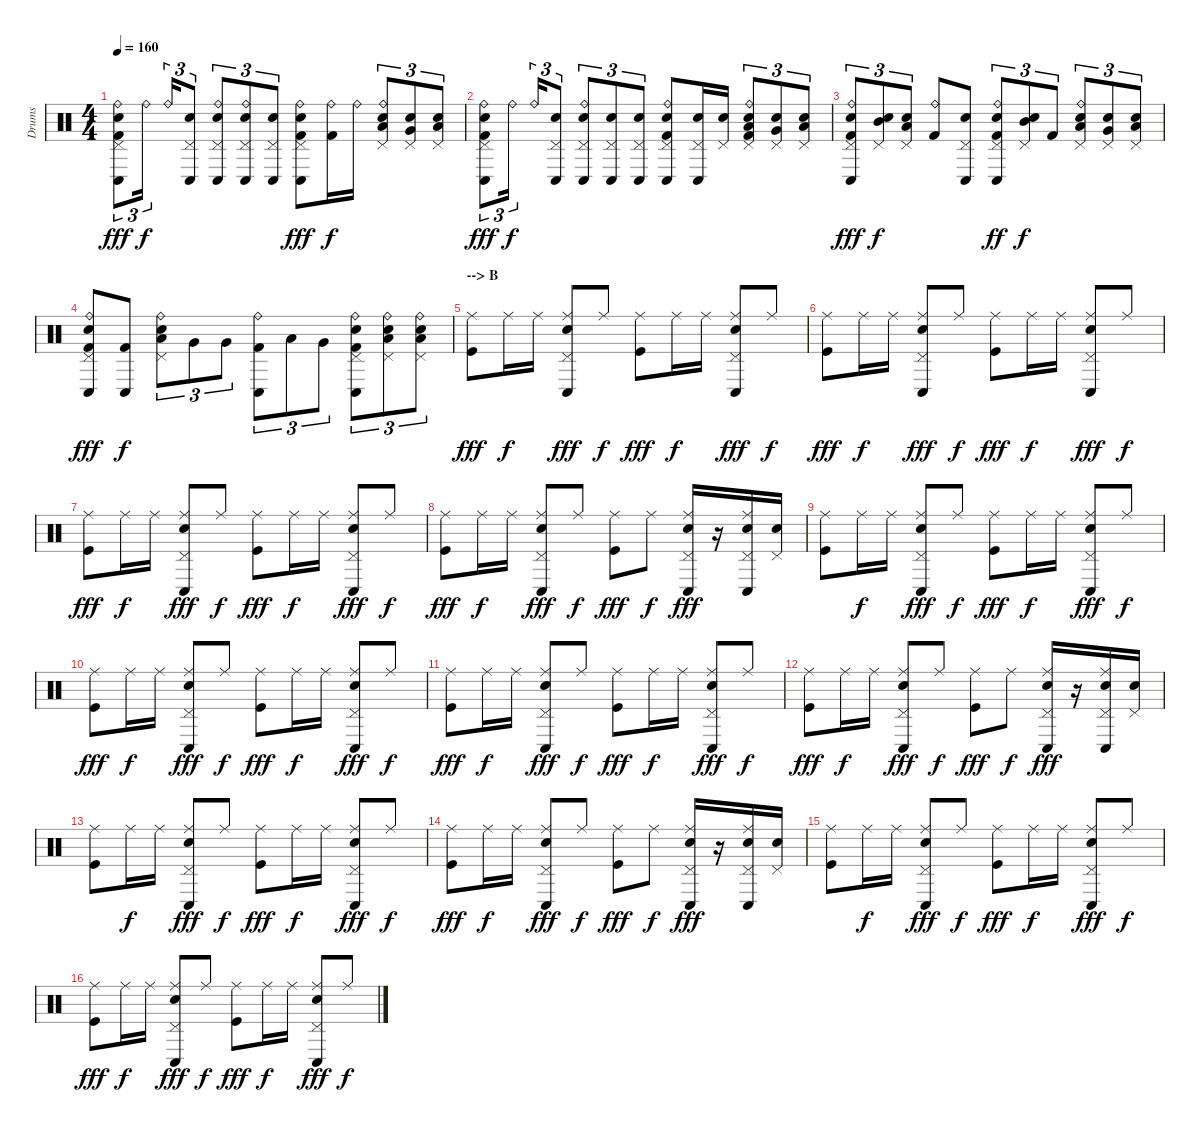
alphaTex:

\track ("Drums" "Drums") {instrument percussion}
\staff {score}
\articulation defaults
\ts (4 4)
\tempo 160
\clef neutral
\ks c
("Ride (bell)" "Pedal Hi-Hat (hit)" "Conga low (hit)" "Electric Snare (hit)" "Kick (hit) 2").8{tu (3 2) dy fff} "Ride (bell)".16{tu (3 2) dy f} "Ride (bell)".16{tu (3 2)} ("Pedal Hi-Hat (hit)" "Conga low (hit)" "Electric Snare (hit)").8{tu (3 2)} ("Ride (bell)" "Pedal Hi-Hat (hit)" "Conga low (hit)" "Electric Snare (hit)").8{tu (3 2)} ("Ride (bell)" "Pedal Hi-Hat (hit)" "Conga low (hit)" "Electric Snare (hit)").8{tu (3 2)} ("Pedal Hi-Hat (hit)" "Conga low (hit)" "Electric Snare (hit)").8{tu (3 2)} ("Ride (bell)" "Pedal Hi-Hat (hit)" "Conga low (hit)" "Electric Snare (hit)" "Kick (hit) 2").8{dy fff} ("Ride (bell)" "Kick (hit) 2").16{dy f} "Ride (bell)".16 ("Ride (bell)" "Pedal Hi-Hat (hit)" "Low Tom (hit)" "Electric Snare (hit)").8{tu (3 2)} ("Pedal Hi-Hat (hit)" "Very Low Tom (hit)" "Electric Snare (hit)").8{tu (3 2)} ("Pedal Hi-Hat (hit)" "Low Floor Tom (hit)" "Electric Snare (hit)").8{tu (3 2)} |
("Ride (bell)" "Pedal Hi-Hat (hit)" "Conga low (hit)" "Electric Snare (hit)" "Kick (hit) 2").8{tu (3 2) dy fff} "Ride (bell)".16{tu (3 2) dy f} "Ride (bell)".16{tu (3 2)} ("Pedal Hi-Hat (hit)" "Conga low (hit)" "Electric Snare (hit)").8{tu (3 2)} ("Ride (bell)" "Pedal Hi-Hat (hit)" "Conga low (hit)" "Electric Snare (hit)").8{tu (3 2)} ("Pedal Hi-Hat (hit)" "Conga low (hit)" "Electric Snare (hit)").8{tu (3 2)} ("Pedal Hi-Hat (hit)" "Conga low (hit)" "Electric Snare (hit)").8{tu (3 2)} ("Ride (bell)" "Pedal Hi-Hat (hit)" "Conga low (hit)" "Electric Snare (hit)" "Kick (hit) 2").8 ("Pedal Hi-Hat (hit)" "Conga low (hit)" "Electric Snare (hit)").16 ("Pedal Hi-Hat (hit)" "Electric Snare (hit)").16 ("Ride (bell)" "Pedal Hi-Hat (hit)" "Low Tom (hit)" "Electric Snare (hit)" "Kick (hit) 2").8{tu (3 2)} ("Pedal Hi-Hat (hit)" "Very Low Tom (hit)" "Electric Snare (hit)").8{tu (3 2)} ("Pedal Hi-Hat (hit)" "Low Floor Tom (hit)" "Electric Snare (hit)").8{tu (3 2)} |
("Ride (bell)" "Pedal Hi-Hat (hit)" "Conga low (hit)" "Electric Snare (hit)" "Kick (hit) 2").8{tu (3 2) dy fff} ("Pedal Hi-Hat (hit)" "Mid Tom (hit)" "Electric Snare (hit)").8{tu (3 2) dy f} ("Pedal Hi-Hat (hit)" "Low Tom (hit)" "Electric Snare (hit)").8{tu (3 2)} ("Ride (bell)" "Kick (hit) 2").8 ("Pedal Hi-Hat (hit)" "Conga low (hit)" "Electric Snare (hit)").8 ("Ride (bell)" "Pedal Hi-Hat (hit)" "Conga low (hit)" "Electric Snare (hit)" "Kick (hit) 2").8{tu (3 2) dy ff} ("Pedal Hi-Hat (hit)" "Mid Tom (hit)" "Electric Snare (hit)").8{tu (3 2) dy f} "Kick (hit) 2".8{tu (3 2)} ("Ride (bell)" "Pedal Hi-Hat (hit)" "Low Tom (hit)" "Electric Snare (hit)").8{tu (3 2)} ("Pedal Hi-Hat (hit)" "Very Low Tom (hit)" "Electric Snare (hit)").8{tu (3 2)} ("Pedal Hi-Hat (hit)" "Low Floor Tom (hit)" "Electric Snare (hit)").8{tu (3 2)} |
("Ride (bell)" "Pedal Hi-Hat (hit)" "Conga low (hit)" "Electric Snare (hit)" "Kick (hit) 2").8{dy fff} ("Conga low (hit)" "Kick (hit) 2").8{dy f} ("Ride (bell)" "Pedal Hi-Hat (hit)" "Low Floor Tom (hit)" "Electric Snare (hit)").8{tu (3 2)} "Very Low Tom (hit)".8{tu (3 2)} "Very Low Tom (hit)".8{tu (3 2)} ("Ride (bell)" "Conga low (hit)" "Kick (hit) 2").8{tu (3 2)} "Low Tom (hit)".8{tu (3 2)} "Very Low Tom (hit)".8{tu (3 2)} ("Ride (bell)" "Pedal Hi-Hat (hit)" "Conga low (hit)" "Electric Snare (hit)" "Kick (hit) 2").8{tu (3 2)} ("Ride (bell)" "Pedal Hi-Hat (hit)" "Low Floor Tom (hit)" "Electric Snare (hit)").8{tu (3 2)} ("Ride (bell)" "Pedal Hi-Hat (hit)" "Low Floor Tom (hit)" "Electric Snare (hit)").8{tu (3 2)} |
\section ("" "--> B")
("Ride (middle)" "Kick (hit)").8{dy fff} "Ride (middle)".16{dy f} "Ride (middle)".16 ("Ride (middle)" "Pedal Hi-Hat (hit)" "Conga low (hit)" "Electric Snare (hit)").8{dy fff} "Ride (middle)".8{dy f} ("Ride (middle)" "Kick (hit)").8{dy fff} "Ride (middle)".16{dy f} "Ride (middle)".16 ("Ride (middle)" "Pedal Hi-Hat (hit)" "Conga low (hit)" "Electric Snare (hit)").8{dy fff} "Ride (middle)".8{dy f} |
("Ride (middle)" "Kick (hit)").8{dy fff} "Ride (middle)".16{dy f} "Ride (middle)".16 ("Ride (middle)" "Pedal Hi-Hat (hit)" "Conga low (hit)" "Electric Snare (hit)").8{dy fff} "Ride (middle)".8{dy f} ("Ride (middle)" "Kick (hit)").8{dy fff} "Ride (middle)".16{dy f} "Ride (middle)".16 ("Ride (middle)" "Pedal Hi-Hat (hit)" "Conga low (hit)" "Electric Snare (hit)").8{dy fff} "Ride (middle)".8{dy f} |
("Ride (middle)" "Kick (hit)").8{dy fff} "Ride (middle)".16{dy f} "Ride (middle)".16 ("Ride (middle)" "Pedal Hi-Hat (hit)" "Conga low (hit)" "Electric Snare (hit)").8{dy fff} "Ride (middle)".8{dy f} ("Ride (middle)" "Kick (hit)").8{dy fff} "Ride (middle)".16{dy f} "Ride (middle)".16 ("Ride (middle)" "Pedal Hi-Hat (hit)" "Conga low (hit)" "Electric Snare (hit)").8{dy fff} "Ride (middle)".8{dy f} |
("Ride (middle)" "Kick (hit)").8{dy fff} "Ride (middle)".16{dy f} "Ride (middle)".16 ("Ride (middle)" "Pedal Hi-Hat (hit)" "Conga low (hit)" "Electric Snare (hit)").8{dy fff} "Ride (middle)".8{dy f} ("Ride (middle)" "Kick (hit)").8{dy fff} "Ride (middle)".8{dy f} ("Ride (middle)" "Pedal Hi-Hat (hit)" "Conga low (hit)" "Electric Snare (hit)").16{dy fff} r.16 ("Ride (middle)" "Pedal Hi-Hat (hit)" "Conga low (hit)" "Electric Snare (hit)").16 ("Pedal Hi-Hat (hit)" "Electric Snare (hit)").16 |
("Ride (middle)" "Kick (hit)").8 "Ride (middle)".16{dy f} "Ride (middle)".16 ("Ride (middle)" "Pedal Hi-Hat (hit)" "Conga low (hit)" "Electric Snare (hit)").8{dy fff} "Ride (middle)".8{dy f} ("Ride (middle)" "Kick (hit)").8{dy fff} "Ride (middle)".16{dy f} "Ride (middle)".16 ("Ride (middle)" "Pedal Hi-Hat (hit)" "Conga low (hit)" "Electric Snare (hit)").8{dy fff} "Ride (middle)".8{dy f} |
("Ride (middle)" "Kick (hit)").8{dy fff} "Ride (middle)".16{dy f} "Ride (middle)".16 ("Ride (middle)" "Pedal Hi-Hat (hit)" "Conga low (hit)" "Electric Snare (hit)").8{dy fff} "Ride (middle)".8{dy f} ("Ride (middle)" "Kick (hit)").8{dy fff} "Ride (middle)".16{dy f} "Ride (middle)".16 ("Ride (middle)" "Pedal Hi-Hat (hit)" "Conga low (hit)" "Electric Snare (hit)").8{dy fff} "Ride (middle)".8{dy f} |
("Ride (middle)" "Kick (hit)").8{dy fff} "Ride (middle)".16{dy f} "Ride (middle)".16 ("Ride (middle)" "Pedal Hi-Hat (hit)" "Conga low (hit)" "Electric Snare (hit)").8{dy fff} "Ride (middle)".8{dy f} ("Ride (middle)" "Kick (hit)").8{dy fff} "Ride (middle)".16{dy f} "Ride (middle)".16 ("Ride (middle)" "Pedal Hi-Hat (hit)" "Conga low (hit)" "Electric Snare (hit)").8{dy fff} "Ride (middle)".8{dy f} |
("Ride (middle)" "Kick (hit)").8{dy fff} "Ride (middle)".16{dy f} "Ride (middle)".16 ("Ride (middle)" "Pedal Hi-Hat (hit)" "Conga low (hit)" "Electric Snare (hit)").8{dy fff} "Ride (middle)".8{dy f} ("Ride (middle)" "Kick (hit)").8{dy fff} "Ride (middle)".8{dy f} ("Ride (middle)" "Pedal Hi-Hat (hit)" "Conga low (hit)" "Electric Snare (hit)").16{dy fff} r.16 ("Ride (middle)" "Pedal Hi-Hat (hit)" "Conga low (hit)" "Electric Snare (hit)").16 ("Pedal Hi-Hat (hit)" "Electric Snare (hit)").16 |
("Ride (middle)" "Kick (hit)").8 "Ride (middle)".16{dy f} "Ride (middle)".16 ("Ride (middle)" "Pedal Hi-Hat (hit)" "Conga low (hit)" "Electric Snare (hit)").8{dy fff} "Ride (middle)".8{dy f} ("Ride (middle)" "Kick (hit)").8{dy fff} "Ride (middle)".16{dy f} "Ride (middle)".16 ("Ride (middle)" "Pedal Hi-Hat (hit)" "Conga low (hit)" "Electric Snare (hit)").8{dy fff} "Ride (middle)".8{dy f} |
("Ride (middle)" "Kick (hit)").8{dy fff} "Ride (middle)".16{dy f} "Ride (middle)".16 ("Ride (middle)" "Pedal Hi-Hat (hit)" "Conga low (hit)" "Electric Snare (hit)").8{dy fff} "Ride (middle)".8{dy f} ("Ride (middle)" "Kick (hit)").8{dy fff} "Ride (middle)".8{dy f} ("Ride (middle)" "Pedal Hi-Hat (hit)" "Conga low (hit)" "Electric Snare (hit)").16{dy fff} r.16 ("Ride (middle)" "Pedal Hi-Hat (hit)" "Conga low (hit)" "Electric Snare (hit)").16 ("Pedal Hi-Hat (hit)" "Electric Snare (hit)").16 |
("Ride (middle)" "Kick (hit)").8 "Ride (middle)".16{dy f} "Ride (middle)".16 ("Ride (middle)" "Pedal Hi-Hat (hit)" "Conga low (hit)" "Electric Snare (hit)").8{dy fff} "Ride (middle)".8{dy f} ("Ride (middle)" "Kick (hit)").8{dy fff} "Ride (middle)".16{dy f} "Ride (middle)".16 ("Ride (middle)" "Pedal Hi-Hat (hit)" "Conga low (hit)" "Electric Snare (hit)").8{dy fff} "Ride (middle)".8{dy f} |
("Ride (middle)" "Kick (hit)").8{dy fff} "Ride (middle)".16{dy f} "Ride (middle)".16 ("Ride (middle)" "Pedal Hi-Hat (hit)" "Conga low (hit)" "Electric Snare (hit)").8{dy fff} "Ride (middle)".8{dy f} ("Ride (middle)" "Kick (hit)").8{dy fff} "Ride (middle)".16{dy f} "Ride (middle)".16 ("Ride (middle)" "Pedal Hi-Hat (hit)" "Conga low (hit)" "Electric Snare (hit)").8{dy fff} "Ride (middle)".8{dy f}
